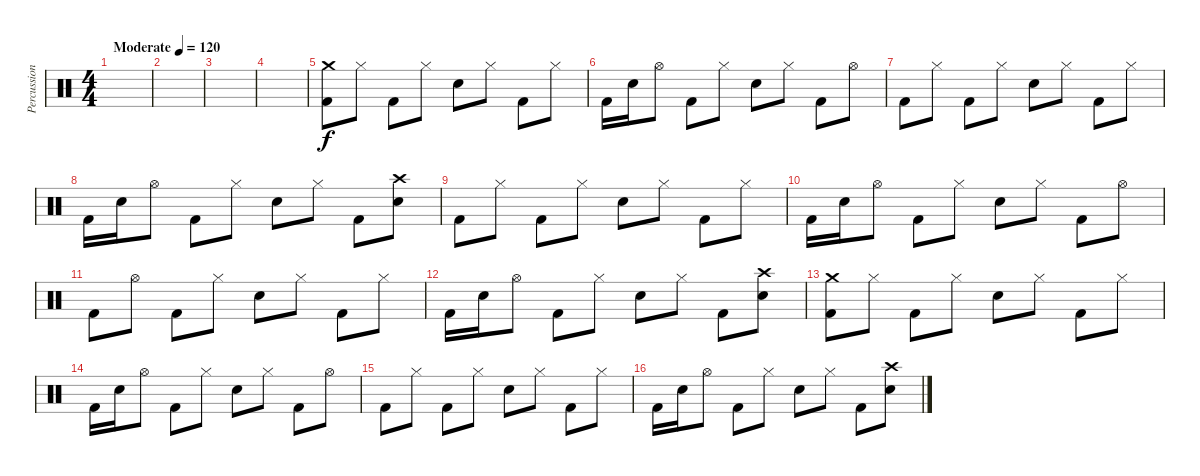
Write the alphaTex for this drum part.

\track ("Percussion" "Percussion") {instrument percussion}
\staff {score}
\articulation defaults
\ts (4 4)
\tempo (120 "Moderate")
\tempo 118
\tempo (120 "Moderate")
\clef neutral
\ks c
|
|
|
|
("Crash medium (hit)" "Kick (hit) 2").8 "Hi-Hat (closed)".8 "Kick (hit) 2".8 "Hi-Hat (closed)".8 "Snare (hit) 2".8 "Hi-Hat (closed)".8 "Kick (hit) 2".8 "Hi-Hat (closed)".8 |
"Kick (hit) 2".16 "Snare (hit) 2".16 "Hi-Hat (open)".8 "Kick (hit) 2".8 "Hi-Hat (closed)".8 "Snare (hit) 2".8 "Hi-Hat (closed)".8 "Kick (hit) 2".8 "Hi-Hat (open)".8 |
"Kick (hit) 2".8 "Hi-Hat (closed)".8 "Kick (hit) 2".8 "Hi-Hat (closed)".8 "Snare (hit) 2".8 "Hi-Hat (closed)".8 "Kick (hit) 2".8 "Hi-Hat (closed)".8 |
"Kick (hit) 2".16 "Snare (hit) 2".16 "Hi-Hat (open)".8 "Kick (hit) 2".8 "Hi-Hat (closed)".8 "Snare (hit) 2".8 "Hi-Hat (closed)".8 "Kick (hit) 2".8 ("Crash high (hit)" "Snare (hit) 2").8 |
"Kick (hit) 2".8 "Hi-Hat (closed)".8 "Kick (hit) 2".8 "Hi-Hat (closed)".8 "Snare (hit) 2".8 "Hi-Hat (closed)".8 "Kick (hit) 2".8 "Hi-Hat (closed)".8 |
"Kick (hit) 2".16 "Snare (hit) 2".16 "Hi-Hat (open)".8 "Kick (hit) 2".8 "Hi-Hat (closed)".8 "Snare (hit) 2".8 "Hi-Hat (closed)".8 "Kick (hit) 2".8 "Hi-Hat (open)".8 |
"Kick (hit) 2".8 "Hi-Hat (open)".8 "Kick (hit) 2".8 "Hi-Hat (closed)".8 "Snare (hit) 2".8 "Hi-Hat (closed)".8 "Kick (hit) 2".8 "Hi-Hat (closed)".8 |
"Kick (hit) 2".16 "Snare (hit) 2".16 "Hi-Hat (open)".8 "Kick (hit) 2".8 "Hi-Hat (closed)".8 "Snare (hit) 2".8 "Hi-Hat (closed)".8 "Kick (hit) 2".8 ("Crash high (hit)" "Snare (hit) 2").8 |
("Crash medium (hit)" "Kick (hit) 2").8 "Hi-Hat (closed)".8 "Kick (hit) 2".8 "Hi-Hat (closed)".8 "Snare (hit) 2".8 "Hi-Hat (closed)".8 "Kick (hit) 2".8 "Hi-Hat (closed)".8 |
"Kick (hit) 2".16 "Snare (hit) 2".16 "Hi-Hat (open)".8 "Kick (hit) 2".8 "Hi-Hat (closed)".8 "Snare (hit) 2".8 "Hi-Hat (closed)".8 "Kick (hit) 2".8 "Hi-Hat (open)".8 |
"Kick (hit) 2".8 "Hi-Hat (closed)".8 "Kick (hit) 2".8 "Hi-Hat (closed)".8 "Snare (hit) 2".8 "Hi-Hat (closed)".8 "Kick (hit) 2".8 "Hi-Hat (closed)".8 |
"Kick (hit) 2".16 "Snare (hit) 2".16 "Hi-Hat (open)".8 "Kick (hit) 2".8 "Hi-Hat (closed)".8 "Snare (hit) 2".8 "Hi-Hat (closed)".8 "Kick (hit) 2".8 ("Crash high (hit)" "Snare (hit) 2").8
